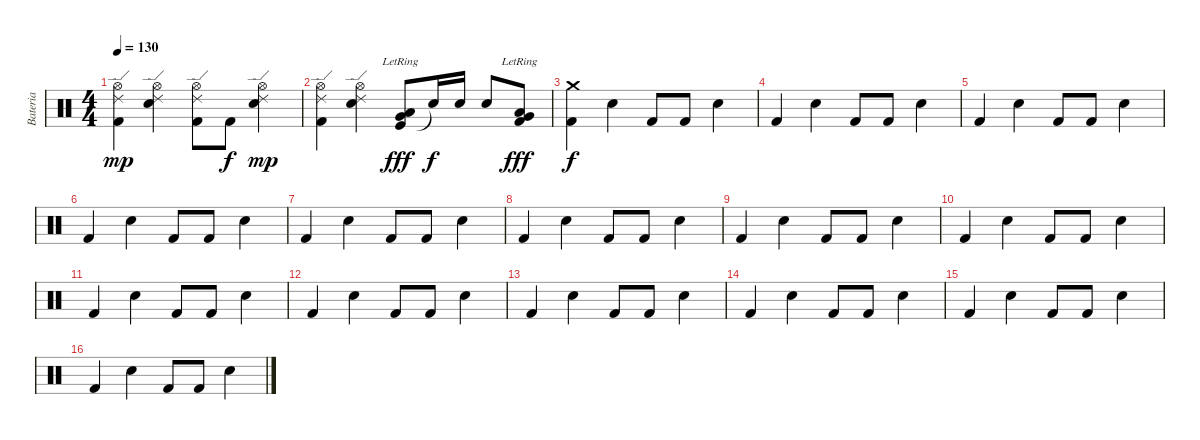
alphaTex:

\track ("Bateria" "Bateria") {instrument percussion}
\staff {score}
\articulation defaults
\ts (4 4)
\tempo 130
\clef neutral
\ks c
("Hi-Hat (open)" "Ride (edge) 2" "Kick (hit) 2").4{dy mp} ("Electric Snare (hit)" "Hi-Hat (open)" "Ride (edge) 2").4 ("Hi-Hat (open)" "Ride (edge) 2" "Kick (hit) 2").8 "Kick (hit) 2".8{dy f} ("Electric Snare (hit)" "Hi-Hat (open)" "Ride (edge) 2").4{dy mp} |
("Hi-Hat (open)" "Ride (edge) 2" "Kick (hit) 2").4 ("Electric Snare (hit)" "Hi-Hat (open)" "Ride (edge) 2").4 ("Kick (hit)" "Very Low Tom (hit)"{lr} "Low Tom (hit)"{lr}).8{dy fff} "Snare (hit)"{t}.16{dy f} "Electric Snare (hit)".16 "Electric Snare (hit)".8 ("Very Low Tom (hit)"{lr} "Low Floor Tom (hit)"{lr} "Kick (hit) 2").8{dy fff} |
("Crash medium (hit)" "Kick (hit) 2").4{dy f} "Electric Snare (hit)".4 "Kick (hit) 2".8 "Kick (hit) 2".8 "Electric Snare (hit)".4 |
"Kick (hit) 2".4 "Electric Snare (hit)".4 "Kick (hit) 2".8 "Kick (hit) 2".8 "Electric Snare (hit)".4 |
"Kick (hit) 2".4 "Electric Snare (hit)".4 "Kick (hit) 2".8 "Kick (hit) 2".8 "Electric Snare (hit)".4 |
"Kick (hit) 2".4 "Electric Snare (hit)".4 "Kick (hit) 2".8 "Kick (hit) 2".8 "Electric Snare (hit)".4 |
"Kick (hit) 2".4 "Electric Snare (hit)".4 "Kick (hit) 2".8 "Kick (hit) 2".8 "Electric Snare (hit)".4 |
"Kick (hit) 2".4 "Electric Snare (hit)".4 "Kick (hit) 2".8 "Kick (hit) 2".8 "Electric Snare (hit)".4 |
"Kick (hit) 2".4 "Electric Snare (hit)".4 "Kick (hit) 2".8 "Kick (hit) 2".8 "Electric Snare (hit)".4 |
"Kick (hit) 2".4 "Electric Snare (hit)".4 "Kick (hit) 2".8 "Kick (hit) 2".8 "Electric Snare (hit)".4 |
"Kick (hit) 2".4 "Electric Snare (hit)".4 "Kick (hit) 2".8 "Kick (hit) 2".8 "Electric Snare (hit)".4 |
"Kick (hit) 2".4 "Electric Snare (hit)".4 "Kick (hit) 2".8 "Kick (hit) 2".8 "Electric Snare (hit)".4 |
"Kick (hit) 2".4 "Electric Snare (hit)".4 "Kick (hit) 2".8 "Kick (hit) 2".8 "Electric Snare (hit)".4 |
"Kick (hit) 2".4 "Electric Snare (hit)".4 "Kick (hit) 2".8 "Kick (hit) 2".8 "Electric Snare (hit)".4 |
"Kick (hit) 2".4 "Electric Snare (hit)".4 "Kick (hit) 2".8 "Kick (hit) 2".8 "Electric Snare (hit)".4 |
"Kick (hit) 2".4 "Electric Snare (hit)".4 "Kick (hit) 2".8 "Kick (hit) 2".8 "Electric Snare (hit)".4
